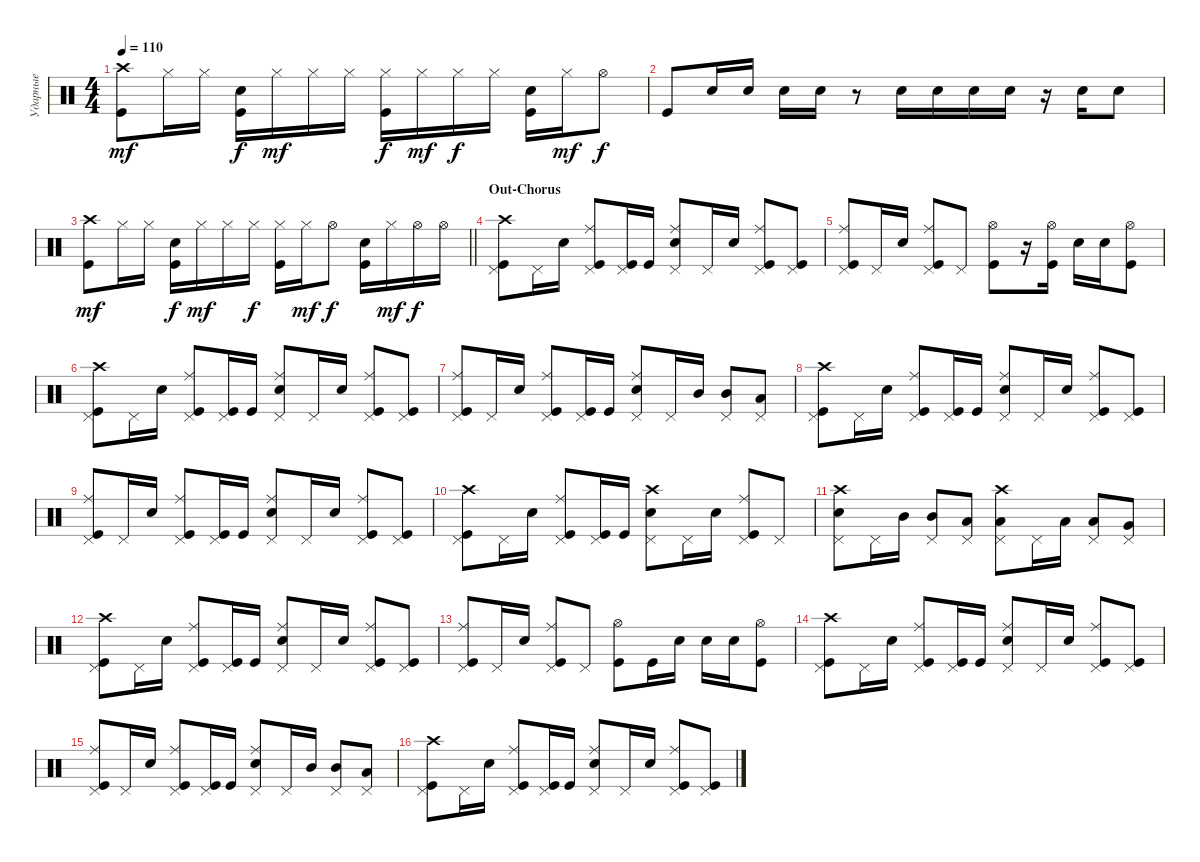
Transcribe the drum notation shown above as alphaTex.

\track ("Ударные" "Ударные") {instrument percussion}
\staff {score}
\articulation defaults
\ts (4 4)
\tempo 110
\clef neutral
\ks c
("Crash high (hit)" "Kick (hit)").8{dy mf} "Hi-Hat (closed)".16 "Hi-Hat (closed)".16 ("Snare (hit) 2" "Kick (hit)").16{dy f} "Hi-Hat (closed)".16{dy mf} "Hi-Hat (closed)".16 "Hi-Hat (closed)".16 ("Hi-Hat (closed)" "Kick (hit)").16{dy f} "Hi-Hat (closed)".16{dy mf} "Hi-Hat (closed)".16{dy f} "Hi-Hat (closed)".16 ("Kick (hit)" "Snare (hit) 2").16 "Hi-Hat (closed)".16{dy mf} "Hi-Hat (open)".8{dy f} |
"Kick (hit)".8 "Snare (hit) 2".16 "Snare (hit) 2".16 "Snare (hit) 2".16 "Snare (hit) 2".16 r.8 "Snare (hit) 2".16 "Snare (hit) 2".16 "Snare (hit) 2".16 "Snare (hit) 2".16 r.16 "Snare (hit) 2".16 "Snare (hit) 2".8 |
\barLineRight lightlight
("Crash high (hit)" "Kick (hit)").8{dy mf} "Hi-Hat (closed)".16 "Hi-Hat (closed)".16 ("Snare (hit) 2" "Kick (hit)").16{dy f} "Hi-Hat (closed)".16{dy mf} "Hi-Hat (closed)".16 "Hi-Hat (closed)".16{dy f} ("Hi-Hat (closed)" "Kick (hit)").16 "Hi-Hat (closed)".16{dy mf} "Hi-Hat (open)".8{dy f} ("Kick (hit)" "Snare (hit) 2").16 "Hi-Hat (closed)".16{dy mf} "Hi-Hat (open)".16{dy f} "Hi-Hat (open)".16 |
\section ("" "Out-Chorus")
("Kick (hit)" "Crash high (hit)" "Pedal Hi-Hat (hit)").8 "Pedal Hi-Hat (hit)".16 "Snare (hit) 2".16 ("Kick (hit)" "Ride (middle)" "Pedal Hi-Hat (hit)").8 ("Pedal Hi-Hat (hit)" "Kick (hit)").16 "Kick (hit)".16 ("Snare (hit) 2" "Ride (middle)" "Pedal Hi-Hat (hit)").8 "Pedal Hi-Hat (hit)".16 "Snare (hit) 2".16 ("Kick (hit)" "Ride (middle)" "Pedal Hi-Hat (hit)").8 ("Kick (hit)" "Pedal Hi-Hat (hit)").8 |
("Kick (hit)" "Ride (middle)" "Pedal Hi-Hat (hit)").8 "Pedal Hi-Hat (hit)".16 "Snare (hit) 2".16 ("Kick (hit)" "Ride (middle)" "Pedal Hi-Hat (hit)").8 "Pedal Hi-Hat (hit)".8 ("Kick (hit)" "Hi-Hat (open)").8 r.16 ("Kick (hit)" "Hi-Hat (open)").16 "Snare (hit) 2".16 "Snare (hit) 2".16 ("Kick (hit)" "Hi-Hat (open)").8 |
("Kick (hit)" "Crash high (hit)" "Pedal Hi-Hat (hit)").8 "Pedal Hi-Hat (hit)".16 "Snare (hit) 2".16 ("Kick (hit)" "Ride (middle)" "Pedal Hi-Hat (hit)").8 ("Pedal Hi-Hat (hit)" "Kick (hit)").16 "Kick (hit)".16 ("Snare (hit) 2" "Ride (middle)" "Pedal Hi-Hat (hit)").8 "Pedal Hi-Hat (hit)".16 "Snare (hit) 2".16 ("Kick (hit)" "Ride (middle)" "Pedal Hi-Hat (hit)").8 ("Kick (hit)" "Pedal Hi-Hat (hit)").8 |
("Kick (hit)" "Ride (middle)" "Pedal Hi-Hat (hit)").8 "Pedal Hi-Hat (hit)".16 "Snare (hit) 2".16 ("Kick (hit)" "Ride (middle)" "Pedal Hi-Hat (hit)").8 ("Pedal Hi-Hat (hit)" "Kick (hit)").16 "Kick (hit)".16 ("Snare (hit) 2" "Pedal Hi-Hat (hit)" "Ride (middle)").8 "Pedal Hi-Hat (hit)".16 "Mid Tom (hit)".16 ("Pedal Hi-Hat (hit)" "Mid Tom (hit)").8 ("Pedal Hi-Hat (hit)" "Low Tom (hit)").8 |
("Kick (hit)" "Crash high (hit)" "Pedal Hi-Hat (hit)").8 "Pedal Hi-Hat (hit)".16 "Snare (hit) 2".16 ("Kick (hit)" "Ride (middle)" "Pedal Hi-Hat (hit)").8 ("Pedal Hi-Hat (hit)" "Kick (hit)").16 "Kick (hit)".16 ("Snare (hit) 2" "Ride (middle)" "Pedal Hi-Hat (hit)").8 "Pedal Hi-Hat (hit)".16 "Snare (hit) 2".16 ("Kick (hit)" "Ride (middle)" "Pedal Hi-Hat (hit)").8 ("Kick (hit)" "Pedal Hi-Hat (hit)").8 |
("Kick (hit)" "Ride (middle)" "Pedal Hi-Hat (hit)").8 "Pedal Hi-Hat (hit)".16 "Snare (hit) 2".16 ("Kick (hit)" "Ride (middle)" "Pedal Hi-Hat (hit)").8 ("Pedal Hi-Hat (hit)" "Kick (hit)").16 "Kick (hit)".16 ("Snare (hit) 2" "Ride (middle)" "Pedal Hi-Hat (hit)").8 "Pedal Hi-Hat (hit)".16 "Snare (hit) 2".16 ("Kick (hit)" "Ride (middle)" "Pedal Hi-Hat (hit)").8 ("Kick (hit)" "Pedal Hi-Hat (hit)").8 |
("Kick (hit)" "Crash high (hit)" "Pedal Hi-Hat (hit)").8 "Pedal Hi-Hat (hit)".16 "Snare (hit) 2".16 ("Kick (hit)" "Ride (middle)" "Pedal Hi-Hat (hit)").8 ("Pedal Hi-Hat (hit)" "Kick (hit)").16 "Kick (hit)".16 ("Snare (hit) 2" "Crash high (hit)" "Pedal Hi-Hat (hit)").8 "Pedal Hi-Hat (hit)".16 "Snare (hit) 2".16 ("Kick (hit)" "Ride (middle)" "Pedal Hi-Hat (hit)").8 "Pedal Hi-Hat (hit)".8 |
("Snare (hit) 2" "Crash high (hit)" "Pedal Hi-Hat (hit)").8 "Pedal Hi-Hat (hit)".16 "Mid Tom (hit)".16 ("Mid Tom (hit)" "Pedal Hi-Hat (hit)").8 ("Low Tom (hit)" "Pedal Hi-Hat (hit)").8 ("Low Tom (hit)" "Crash high (hit)" "Pedal Hi-Hat (hit)").8 "Pedal Hi-Hat (hit)".16 "Low Tom (hit)".16 ("Low Tom (hit)" "Pedal Hi-Hat (hit)").8 ("Very Low Tom (hit)" "Pedal Hi-Hat (hit)").8 |
("Kick (hit)" "Crash high (hit)" "Pedal Hi-Hat (hit)").8 "Pedal Hi-Hat (hit)".16 "Snare (hit) 2".16 ("Kick (hit)" "Ride (middle)" "Pedal Hi-Hat (hit)").8 ("Pedal Hi-Hat (hit)" "Kick (hit)").16 "Kick (hit)".16 ("Snare (hit) 2" "Ride (middle)" "Pedal Hi-Hat (hit)").8 "Pedal Hi-Hat (hit)".16 "Snare (hit) 2".16 ("Kick (hit)" "Ride (middle)" "Pedal Hi-Hat (hit)").8 ("Kick (hit)" "Pedal Hi-Hat (hit)").8 |
("Kick (hit)" "Ride (middle)" "Pedal Hi-Hat (hit)").8 "Pedal Hi-Hat (hit)".16 "Snare (hit) 2".16 ("Kick (hit)" "Ride (middle)" "Pedal Hi-Hat (hit)").8 "Pedal Hi-Hat (hit)".8 ("Kick (hit)" "Hi-Hat (open)").8 "Kick (hit)".16 "Snare (hit) 2".16 "Snare (hit) 2".16 "Snare (hit) 2".16 ("Kick (hit)" "Hi-Hat (open)").8 |
("Kick (hit)" "Crash high (hit)" "Pedal Hi-Hat (hit)").8 "Pedal Hi-Hat (hit)".16 "Snare (hit) 2".16 ("Kick (hit)" "Ride (middle)" "Pedal Hi-Hat (hit)").8 ("Pedal Hi-Hat (hit)" "Kick (hit)").16 "Kick (hit)".16 ("Snare (hit) 2" "Ride (middle)" "Pedal Hi-Hat (hit)").8 "Pedal Hi-Hat (hit)".16 "Snare (hit) 2".16 ("Kick (hit)" "Ride (middle)" "Pedal Hi-Hat (hit)").8 ("Kick (hit)" "Pedal Hi-Hat (hit)").8 |
("Kick (hit)" "Ride (middle)" "Pedal Hi-Hat (hit)").8 "Pedal Hi-Hat (hit)".16 "Snare (hit) 2".16 ("Kick (hit)" "Ride (middle)" "Pedal Hi-Hat (hit)").8 ("Pedal Hi-Hat (hit)" "Kick (hit)").16 "Kick (hit)".16 ("Snare (hit) 2" "Pedal Hi-Hat (hit)" "Ride (middle)").8 "Pedal Hi-Hat (hit)".16 "Mid Tom (hit)".16 ("Pedal Hi-Hat (hit)" "Mid Tom (hit)").8 ("Pedal Hi-Hat (hit)" "Low Tom (hit)").8 |
("Kick (hit)" "Crash high (hit)" "Pedal Hi-Hat (hit)").8 "Pedal Hi-Hat (hit)".16 "Snare (hit) 2".16 ("Kick (hit)" "Ride (middle)" "Pedal Hi-Hat (hit)").8 ("Pedal Hi-Hat (hit)" "Kick (hit)").16 "Kick (hit)".16 ("Snare (hit) 2" "Ride (middle)" "Pedal Hi-Hat (hit)").8 "Pedal Hi-Hat (hit)".16 "Snare (hit) 2".16 ("Kick (hit)" "Ride (middle)" "Pedal Hi-Hat (hit)").8 ("Kick (hit)" "Pedal Hi-Hat (hit)").8
